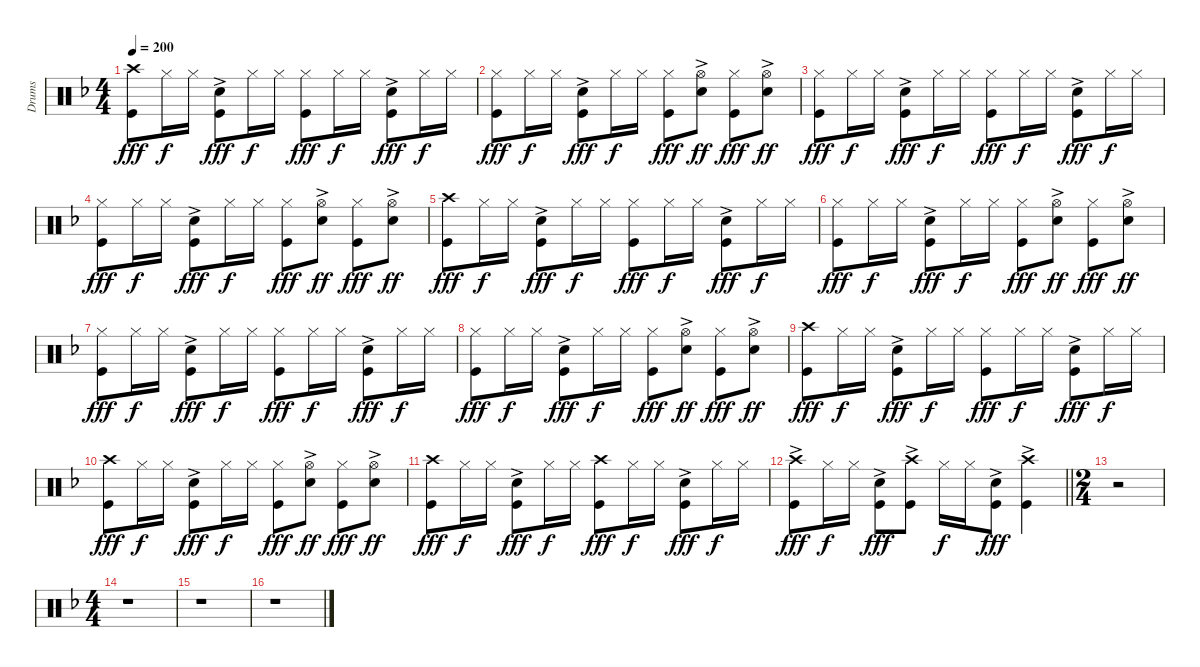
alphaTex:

\track ("Drums" "Drums") {instrument percussion bank 25}
\staff {score}
\articulation defaults
\ts (4 4)
\tempo 200
\clef neutral
\ks dminor
("Crash high (hit)" "Kick (hit)").8{dy fff} "Hi-Hat (closed)".16{dy f} "Hi-Hat (closed)".16 ("Snare (hit) 2"{ac} "Kick (hit)").8{dy fff} "Hi-Hat (closed)".16{dy f} "Hi-Hat (closed)".16 ("Hi-Hat (closed)" "Kick (hit)").8{dy fff} "Hi-Hat (closed)".16{dy f} "Hi-Hat (closed)".16 ("Snare (hit) 2"{ac} "Kick (hit)").8{dy fff} "Hi-Hat (closed)".16{dy f} "Hi-Hat (closed)".16 |
("Hi-Hat (closed)" "Kick (hit)").8{dy fff} "Hi-Hat (closed)".16{dy f} "Hi-Hat (closed)".16 ("Snare (hit) 2"{ac} "Kick (hit)").8{dy fff} "Hi-Hat (closed)".16{dy f} "Hi-Hat (closed)".16 ("Hi-Hat (closed)" "Kick (hit)").8{dy fff} ("Hi-Hat (open)" "Snare (hit) 2"{ac}).8{dy ff} ("Hi-Hat (closed)" "Kick (hit)").8{dy fff} ("Hi-Hat (open)" "Snare (hit) 2"{ac}).8{dy ff} |
("Hi-Hat (closed)" "Kick (hit)").8{dy fff} "Hi-Hat (closed)".16{dy f} "Hi-Hat (closed)".16 ("Snare (hit) 2"{ac} "Kick (hit)").8{dy fff} "Hi-Hat (closed)".16{dy f} "Hi-Hat (closed)".16 ("Hi-Hat (closed)" "Kick (hit)").8{dy fff} "Hi-Hat (closed)".16{dy f} "Hi-Hat (closed)".16 ("Snare (hit) 2"{ac} "Kick (hit)").8{dy fff} "Hi-Hat (closed)".16{dy f} "Hi-Hat (closed)".16 |
("Hi-Hat (closed)" "Kick (hit)").8{dy fff} "Hi-Hat (closed)".16{dy f} "Hi-Hat (closed)".16 ("Snare (hit) 2"{ac} "Kick (hit)").8{dy fff} "Hi-Hat (closed)".16{dy f} "Hi-Hat (closed)".16 ("Hi-Hat (closed)" "Kick (hit)").8{dy fff} ("Hi-Hat (open)" "Snare (hit) 2"{ac}).8{dy ff} ("Hi-Hat (closed)" "Kick (hit)").8{dy fff} ("Hi-Hat (open)" "Snare (hit) 2"{ac}).8{dy ff} |
("Crash high (hit)" "Kick (hit)").8{dy fff} "Hi-Hat (closed)".16{dy f} "Hi-Hat (closed)".16 ("Snare (hit) 2"{ac} "Kick (hit)").8{dy fff} "Hi-Hat (closed)".16{dy f} "Hi-Hat (closed)".16 ("Hi-Hat (closed)" "Kick (hit)").8{dy fff} "Hi-Hat (closed)".16{dy f} "Hi-Hat (closed)".16 ("Snare (hit) 2"{ac} "Kick (hit)").8{dy fff} "Hi-Hat (closed)".16{dy f} "Hi-Hat (closed)".16 |
("Hi-Hat (closed)" "Kick (hit)").8{dy fff} "Hi-Hat (closed)".16{dy f} "Hi-Hat (closed)".16 ("Snare (hit) 2"{ac} "Kick (hit)").8{dy fff} "Hi-Hat (closed)".16{dy f} "Hi-Hat (closed)".16 ("Hi-Hat (closed)" "Kick (hit)").8{dy fff} ("Hi-Hat (open)" "Snare (hit) 2"{ac}).8{dy ff} ("Hi-Hat (closed)" "Kick (hit)").8{dy fff} ("Hi-Hat (open)" "Snare (hit) 2"{ac}).8{dy ff} |
("Hi-Hat (closed)" "Kick (hit)").8{dy fff} "Hi-Hat (closed)".16{dy f} "Hi-Hat (closed)".16 ("Snare (hit) 2"{ac} "Kick (hit)").8{dy fff} "Hi-Hat (closed)".16{dy f} "Hi-Hat (closed)".16 ("Hi-Hat (closed)" "Kick (hit)").8{dy fff} "Hi-Hat (closed)".16{dy f} "Hi-Hat (closed)".16 ("Snare (hit) 2"{ac} "Kick (hit)").8{dy fff} "Hi-Hat (closed)".16{dy f} "Hi-Hat (closed)".16 |
("Hi-Hat (closed)" "Kick (hit)").8{dy fff} "Hi-Hat (closed)".16{dy f} "Hi-Hat (closed)".16 ("Snare (hit) 2"{ac} "Kick (hit)").8{dy fff} "Hi-Hat (closed)".16{dy f} "Hi-Hat (closed)".16 ("Hi-Hat (closed)" "Kick (hit)").8{dy fff} ("Hi-Hat (open)" "Snare (hit) 2"{ac}).8{dy ff} ("Hi-Hat (closed)" "Kick (hit)").8{dy fff} ("Hi-Hat (open)" "Snare (hit) 2"{ac}).8{dy ff} |
("Crash high (hit)" "Kick (hit)").8{dy fff} "Hi-Hat (closed)".16{dy f} "Hi-Hat (closed)".16 ("Snare (hit) 2"{ac} "Kick (hit)").8{dy fff} "Hi-Hat (closed)".16{dy f} "Hi-Hat (closed)".16 ("Hi-Hat (closed)" "Kick (hit)").8{dy fff} "Hi-Hat (closed)".16{dy f} "Hi-Hat (closed)".16 ("Snare (hit) 2"{ac} "Kick (hit)").8{dy fff} "Hi-Hat (closed)".16{dy f} "Hi-Hat (closed)".16 |
("Crash high (hit)" "Kick (hit)").8{dy fff} "Hi-Hat (closed)".16{dy f} "Hi-Hat (closed)".16 ("Snare (hit) 2"{ac} "Kick (hit)").8{dy fff} "Hi-Hat (closed)".16{dy f} "Hi-Hat (closed)".16 ("Hi-Hat (closed)" "Kick (hit)").8{dy fff} ("Hi-Hat (open)" "Snare (hit) 2"{ac}).8{dy ff} ("Hi-Hat (closed)" "Kick (hit)").8{dy fff} ("Hi-Hat (open)" "Snare (hit) 2"{ac}).8{dy ff} |
("Crash high (hit)" "Kick (hit)").8{dy fff} "Hi-Hat (closed)".16{dy f} "Hi-Hat (closed)".16 ("Snare (hit) 2"{ac} "Kick (hit)").8{dy fff} "Hi-Hat (closed)".16{dy f} "Hi-Hat (closed)".16 ("Crash high (hit)" "Kick (hit)").8{dy fff} "Hi-Hat (closed)".16{dy f} "Hi-Hat (closed)".16 ("Snare (hit) 2"{ac} "Kick (hit)").8{dy fff} "Hi-Hat (closed)".16{dy f} "Hi-Hat (closed)".16 |
\barLineRight lightlight
("Crash high (hit)"{ac} "Kick (hit)").8{dy fff} "Hi-Hat (closed)".16{dy f} "Hi-Hat (closed)".16 ("Snare (hit) 2"{ac} "Kick (hit)").8{dy fff} ("Crash high (hit)"{ac} "Kick (hit)").8 "Hi-Hat (closed)".16{dy f} "Hi-Hat (closed)".16 ("Snare (hit) 2"{ac} "Kick (hit)").8{dy fff} ("Crash high (hit)"{ac} "Kick (hit)").4 |
\ts (2 4)
r.2 |
\ts (4 4)
r.1 |
r.1 |
r.1
